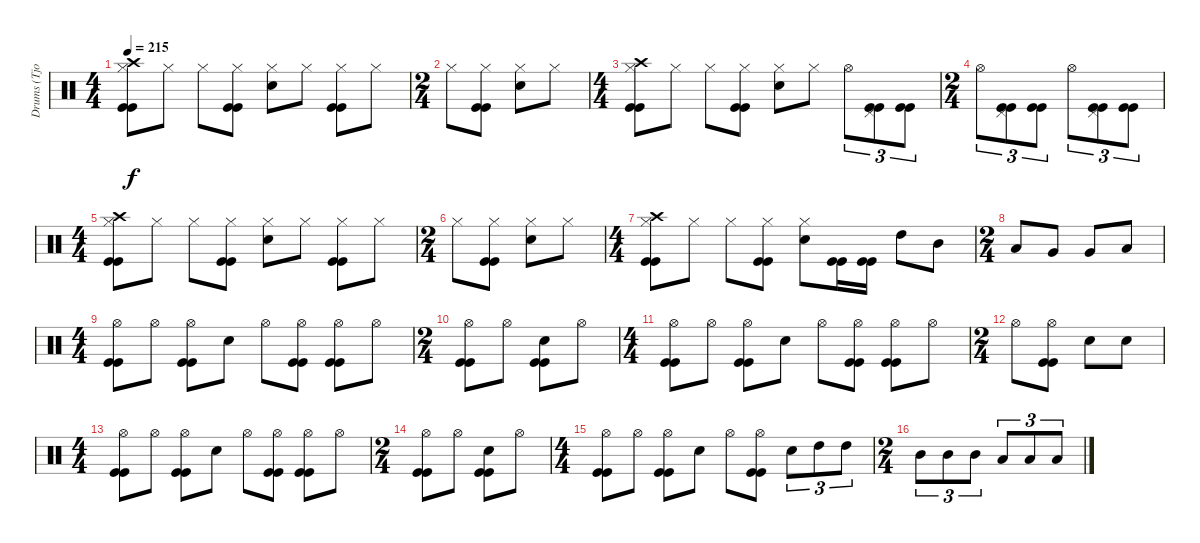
\track ("Drums (Tjodalv)" "Drums (Tjo") {instrument percussion}
\staff {score}
\articulation defaults
\ts (4 4)
\tempo 215
\clef neutral
\ks c
("Crash high (hit)" "Hi-Hat (closed)" "Kick (hit)" "Kick (hit)").8{dy f} "Hi-Hat (closed)".8 "Hi-Hat (closed)".8 ("Hi-Hat (closed)" "Kick (hit)" "Kick (hit)").8 ("Snare (hit) 2" "Hi-Hat (closed)").8 "Hi-Hat (closed)".8 ("Hi-Hat (closed)" "Kick (hit)" "Kick (hit)").8 "Hi-Hat (closed)".8 |
\ts (2 4)
"Hi-Hat (closed)".8 ("Hi-Hat (closed)" "Kick (hit)" "Kick (hit)").8 ("Snare (hit) 2" "Hi-Hat (closed)").8 "Hi-Hat (closed)".8 |
\ts (4 4)
("Crash high (hit)" "Hi-Hat (closed)" "Kick (hit)" "Kick (hit)").8 "Hi-Hat (closed)".8 "Hi-Hat (closed)".8 ("Hi-Hat (closed)" "Kick (hit)" "Kick (hit)").8 ("Snare (hit) 2" "Hi-Hat (closed)").8 "Hi-Hat (closed)".8 "Hi-Hat (open)".8{tu (3 2)} ("Pedal Hi-Hat (hit)" "Kick (hit)" "Kick (hit)").8{tu (3 2)} ("Kick (hit)" "Kick (hit)").8{tu (3 2)} |
\ts (2 4)
"Hi-Hat (open)".8{tu (3 2)} ("Pedal Hi-Hat (hit)" "Kick (hit)" "Kick (hit)").8{tu (3 2)} ("Kick (hit)" "Kick (hit)").8{tu (3 2)} "Hi-Hat (open)".8{tu (3 2)} ("Pedal Hi-Hat (hit)" "Kick (hit)" "Kick (hit)").8{tu (3 2)} ("Kick (hit)" "Kick (hit)").8{tu (3 2)} |
\ts (4 4)
("Crash high (hit)" "Hi-Hat (closed)" "Kick (hit)" "Kick (hit)").8 "Hi-Hat (closed)".8 "Hi-Hat (closed)".8 ("Hi-Hat (closed)" "Kick (hit)" "Kick (hit)").8 ("Snare (hit) 2" "Hi-Hat (closed)").8 "Hi-Hat (closed)".8 ("Hi-Hat (closed)" "Kick (hit)" "Kick (hit)").8 "Hi-Hat (closed)".8 |
\ts (2 4)
"Hi-Hat (closed)".8 ("Hi-Hat (closed)" "Kick (hit)" "Kick (hit)").8 ("Snare (hit) 2" "Hi-Hat (closed)").8 "Hi-Hat (closed)".8 |
\ts (4 4)
("Crash high (hit)" "Hi-Hat (closed)" "Kick (hit)" "Kick (hit)").8 "Hi-Hat (closed)".8 "Hi-Hat (closed)".8 ("Hi-Hat (closed)" "Kick (hit)" "Kick (hit)").8 ("Snare (hit) 2" "Hi-Hat (closed)").8 ("Kick (hit)" "Kick (hit)").16 ("Kick (hit)" "Kick (hit)").16 "High Tom (hit)".8 "Mid Tom (hit)".8 |
\ts (2 4)
"Low Tom (hit)".8 "Very Low Tom (hit)".8 "Very Low Tom (hit)".8 "Low Floor Tom (hit)".8 |
\ts (4 4)
("Hi-Hat (open)" "Kick (hit)" "Kick (hit)").8 "Hi-Hat (open)".8 ("Hi-Hat (open)" "Kick (hit)" "Kick (hit)").8 "Snare (hit) 2".8 "Hi-Hat (open)".8 ("Hi-Hat (open)" "Kick (hit)" "Kick (hit)").8 ("Hi-Hat (open)" "Kick (hit)" "Kick (hit)").8 "Hi-Hat (open)".8 |
\ts (2 4)
("Hi-Hat (open)" "Kick (hit)" "Kick (hit)").8 "Hi-Hat (open)".8 ("Snare (hit) 2" "Kick (hit)" "Kick (hit)").8 "Hi-Hat (open)".8 |
\ts (4 4)
("Hi-Hat (open)" "Kick (hit)" "Kick (hit)").8 "Hi-Hat (open)".8 ("Hi-Hat (open)" "Kick (hit)" "Kick (hit)").8 "Snare (hit) 2".8 "Hi-Hat (open)".8 ("Hi-Hat (open)" "Kick (hit)" "Kick (hit)").8 ("Hi-Hat (open)" "Kick (hit)" "Kick (hit)").8 "Hi-Hat (open)".8 |
\ts (2 4)
"Hi-Hat (open)".8 ("Hi-Hat (open)" "Kick (hit)" "Kick (hit)").8 "Snare (hit) 2".8 "Snare (hit) 2".8 |
\ts (4 4)
("Hi-Hat (open)" "Kick (hit)" "Kick (hit)").8 "Hi-Hat (open)".8 ("Hi-Hat (open)" "Kick (hit)" "Kick (hit)").8 "Snare (hit) 2".8 "Hi-Hat (open)".8 ("Hi-Hat (open)" "Kick (hit)" "Kick (hit)").8 ("Hi-Hat (open)" "Kick (hit)" "Kick (hit)").8 "Hi-Hat (open)".8 |
\ts (2 4)
("Hi-Hat (open)" "Kick (hit)" "Kick (hit)").8 "Hi-Hat (open)".8 ("Snare (hit) 2" "Kick (hit)" "Kick (hit)").8 "Hi-Hat (open)".8 |
\ts (4 4)
("Hi-Hat (open)" "Kick (hit)" "Kick (hit)").8 "Hi-Hat (open)".8 ("Hi-Hat (open)" "Kick (hit)" "Kick (hit)").8 "Snare (hit) 2".8 "Hi-Hat (open)".8 ("Hi-Hat (open)" "Kick (hit)" "Kick (hit)").8 "Snare (hit) 2".8{tu (3 2)} "High Tom (hit)".8{tu (3 2)} "High Tom (hit)".8{tu (3 2)} |
\ts (2 4)
"Mid Tom (hit)".8{tu (3 2)} "Mid Tom (hit)".8{tu (3 2)} "Mid Tom (hit)".8{tu (3 2)} "Low Tom (hit)".8{tu (3 2)} "Low Tom (hit)".8{tu (3 2)} "Low Tom (hit)".8{tu (3 2)}
